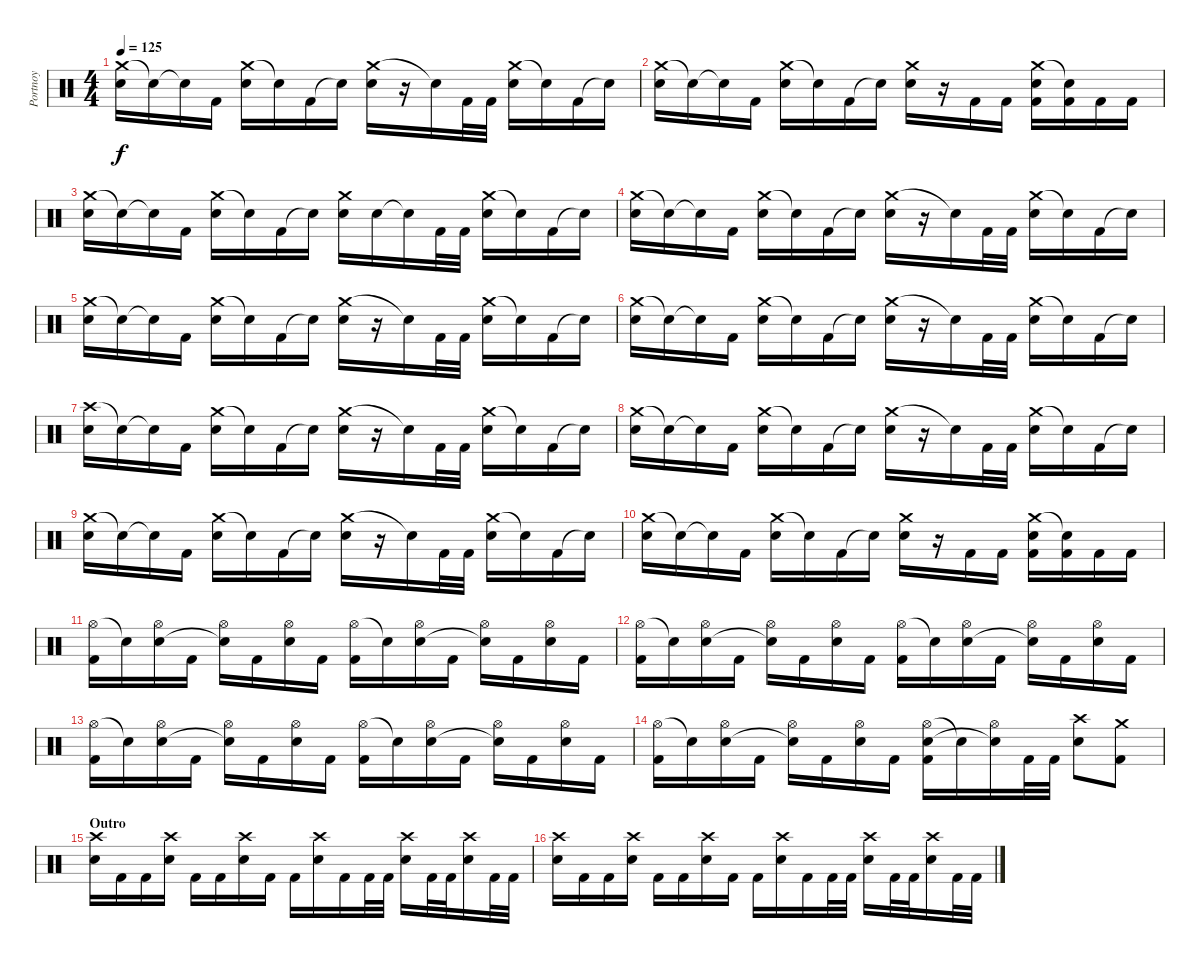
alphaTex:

\track ("Portnoy" "Portnoy") {instrument percussion}
\staff {score}
\articulation defaults
\ts (4 4)
\tempo 125
\clef neutral
\ks c
("Crash medium (hit)" "Snare (hit) 2").16{dy f} "Snare (hit)"{t}.16 "Snare (hit)"{t}.16 "Kick (hit) 2".16 ("Crash medium (hit)" "Snare (hit) 2").16 "Snare (hit)"{t}.16 "Kick (hit) 2".16 "Snare (hit)"{t}.16 ("Crash medium (hit)" "Snare (hit) 2").16 r.16 "Snare (hit)"{t}.16 "Kick (hit) 2".32 "Kick (hit) 2".32 ("Crash medium (hit)" "Snare (hit) 2").16 "Snare (hit)"{t}.16 "Kick (hit) 2".16 "Snare (hit)"{t}.16 |
("Crash medium (hit)" "Snare (hit) 2").16 "Snare (hit)"{t}.16 "Snare (hit)"{t}.16 "Kick (hit) 2".16 ("Crash medium (hit)" "Snare (hit) 2").16 "Snare (hit)"{t}.16 "Kick (hit) 2".16 "Snare (hit)"{t}.16 ("Crash medium (hit)" "Snare (hit) 2").16 r.16 "Kick (hit) 2".16 "Kick (hit) 2".16 ("Crash medium (hit)" "Snare (hit) 2" "Kick (hit) 2").16 ("Snare (hit)"{t} "Kick (hit) 2").16 "Kick (hit) 2".16 "Kick (hit) 2".16 |
("Crash medium (hit)" "Snare (hit) 2").16 "Snare (hit)"{t}.16 "Snare (hit)"{t}.16 "Kick (hit) 2".16 ("Crash medium (hit)" "Snare (hit) 2").16 "Snare (hit)"{t}.16 "Kick (hit) 2".16 "Snare (hit)"{t}.16 ("Crash medium (hit)" "Snare (hit) 2").16 "Snare (hit) 2".16 "Snare (hit)"{t}.16 "Kick (hit) 2".32 "Kick (hit) 2".32 ("Crash medium (hit)" "Snare (hit) 2").16 "Snare (hit)"{t}.16 "Kick (hit) 2".16 "Snare (hit)"{t}.16 |
("Crash medium (hit)" "Snare (hit) 2").16 "Snare (hit)"{t}.16 "Snare (hit)"{t}.16 "Kick (hit) 2".16 ("Crash medium (hit)" "Snare (hit) 2").16 "Snare (hit)"{t}.16 "Kick (hit) 2".16 "Snare (hit)"{t}.16 ("Crash medium (hit)" "Snare (hit) 2").16 r.16 "Snare (hit)"{t}.16 "Kick (hit) 2".32 "Kick (hit) 2".32 ("Crash medium (hit)" "Snare (hit) 2").16 "Snare (hit)"{t}.16 "Kick (hit) 2".16 "Snare (hit)"{t}.16 |
("Crash medium (hit)" "Snare (hit) 2").16 "Snare (hit)"{t}.16 "Snare (hit)"{t}.16 "Kick (hit) 2".16 ("Crash medium (hit)" "Snare (hit) 2").16 "Snare (hit)"{t}.16 "Kick (hit) 2".16 "Snare (hit)"{t}.16 ("Crash medium (hit)" "Snare (hit) 2").16 r.16 "Snare (hit)"{t}.16 "Kick (hit) 2".32 "Kick (hit) 2".32 ("Crash medium (hit)" "Snare (hit) 2").16 "Snare (hit)"{t}.16 "Kick (hit) 2".16 "Snare (hit)"{t}.16 |
("Crash medium (hit)" "Snare (hit) 2").16 "Snare (hit)"{t}.16 "Snare (hit)"{t}.16 "Kick (hit) 2".16 ("Crash medium (hit)" "Snare (hit) 2").16 "Snare (hit)"{t}.16 "Kick (hit) 2".16 "Snare (hit)"{t}.16 ("Crash medium (hit)" "Snare (hit) 2").16 r.16 "Snare (hit)"{t}.16 "Kick (hit) 2".32 "Kick (hit) 2".32 ("Crash medium (hit)" "Snare (hit) 2").16 "Snare (hit)"{t}.16 "Kick (hit) 2".16 "Snare (hit)"{t}.16 |
("Crash high (hit)" "Snare (hit) 2").16 "Snare (hit)"{t}.16 "Snare (hit)"{t}.16 "Kick (hit) 2".16 ("Crash medium (hit)" "Snare (hit) 2").16 "Snare (hit)"{t}.16 "Kick (hit) 2".16 "Snare (hit)"{t}.16 ("Crash medium (hit)" "Snare (hit) 2").16 r.16 "Snare (hit)"{t}.16 "Kick (hit) 2".32 "Kick (hit) 2".32 ("Crash medium (hit)" "Snare (hit) 2").16 "Snare (hit)"{t}.16 "Kick (hit) 2".16 "Snare (hit)"{t}.16 |
("Crash medium (hit)" "Snare (hit) 2").16 "Snare (hit)"{t}.16 "Snare (hit)"{t}.16 "Kick (hit) 2".16 ("Crash medium (hit)" "Snare (hit) 2").16 "Snare (hit)"{t}.16 "Kick (hit) 2".16 "Snare (hit)"{t}.16 ("Crash medium (hit)" "Snare (hit) 2").16 r.16 "Snare (hit)"{t}.16 "Kick (hit) 2".32 "Kick (hit) 2".32 ("Crash medium (hit)" "Snare (hit) 2").16 "Snare (hit)"{t}.16 "Kick (hit) 2".16 "Snare (hit)"{t}.16 |
("Crash medium (hit)" "Snare (hit) 2").16 "Snare (hit)"{t}.16 "Snare (hit)"{t}.16 "Kick (hit) 2".16 ("Crash medium (hit)" "Snare (hit) 2").16 "Snare (hit)"{t}.16 "Kick (hit) 2".16 "Snare (hit)"{t}.16 ("Crash medium (hit)" "Snare (hit) 2").16 r.16 "Snare (hit)"{t}.16 "Kick (hit) 2".32 "Kick (hit) 2".32 ("Crash medium (hit)" "Snare (hit) 2").16 "Snare (hit)"{t}.16 "Kick (hit) 2".16 "Snare (hit)"{t}.16 |
("Crash medium (hit)" "Snare (hit) 2").16 "Snare (hit)"{t}.16 "Snare (hit)"{t}.16 "Kick (hit) 2".16 ("Crash medium (hit)" "Snare (hit) 2").16 "Snare (hit)"{t}.16 "Kick (hit) 2".16 "Snare (hit)"{t}.16 ("Crash medium (hit)" "Snare (hit) 2").16 r.16 "Kick (hit) 2".16 "Kick (hit) 2".16 ("Crash medium (hit)" "Snare (hit) 2" "Kick (hit) 2").16 ("Snare (hit)"{t} "Kick (hit) 2").16 "Kick (hit) 2".16 "Kick (hit) 2".16 |
("Hi-Hat (open)" "Kick (hit) 2").16 "Snare (hit)"{t}.16 ("Hi-Hat (open)" "Snare (hit) 2").16 "Kick (hit) 2".16 ("Hi-Hat (open)" "Snare (hit)"{t}).16 "Kick (hit) 2".16 ("Hi-Hat (open)" "Snare (hit) 2").16 "Kick (hit) 2".16 ("Hi-Hat (open)" "Kick (hit) 2").16 "Snare (hit)"{t}.16 ("Hi-Hat (open)" "Snare (hit) 2").16 "Kick (hit) 2".16 ("Hi-Hat (open)" "Snare (hit)"{t}).16 "Kick (hit) 2".16 ("Hi-Hat (open)" "Snare (hit) 2").16 "Kick (hit) 2".16 |
("Hi-Hat (open)" "Kick (hit) 2").16 "Snare (hit)"{t}.16 ("Hi-Hat (open)" "Snare (hit) 2").16 "Kick (hit) 2".16 ("Hi-Hat (open)" "Snare (hit)"{t}).16 "Kick (hit) 2".16 ("Hi-Hat (open)" "Snare (hit) 2").16 "Kick (hit) 2".16 ("Hi-Hat (open)" "Kick (hit) 2").16 "Snare (hit)"{t}.16 ("Hi-Hat (open)" "Snare (hit) 2").16 "Kick (hit) 2".16 ("Hi-Hat (open)" "Snare (hit)"{t}).16 "Kick (hit) 2".16 ("Hi-Hat (open)" "Snare (hit) 2").16 "Kick (hit) 2".16 |
("Hi-Hat (open)" "Kick (hit) 2").16 "Snare (hit)"{t}.16 ("Hi-Hat (open)" "Snare (hit) 2").16 "Kick (hit) 2".16 ("Hi-Hat (open)" "Snare (hit)"{t}).16 "Kick (hit) 2".16 ("Hi-Hat (open)" "Snare (hit) 2").16 "Kick (hit) 2".16 ("Hi-Hat (open)" "Kick (hit) 2").16 "Snare (hit)"{t}.16 ("Hi-Hat (open)" "Snare (hit) 2").16 "Kick (hit) 2".16 ("Hi-Hat (open)" "Snare (hit)"{t}).16 "Kick (hit) 2".16 ("Hi-Hat (open)" "Snare (hit) 2").16 "Kick (hit) 2".16 |
("Hi-Hat (open)" "Kick (hit) 2").16 "Snare (hit)"{t}.16 ("Hi-Hat (open)" "Snare (hit) 2").16 "Kick (hit) 2".16 ("Hi-Hat (open)" "Snare (hit)"{t}).16 "Kick (hit) 2".16 ("Hi-Hat (open)" "Snare (hit) 2").16 "Kick (hit) 2".16 ("Hi-Hat (open)" "Snare (hit) 2" "Kick (hit) 2").16 "Snare (hit)"{t}.16 ("Hi-Hat (open)" "Snare (hit)"{t}).16 "Kick (hit) 2".32 "Kick (hit) 2".32 ("Crash high (hit)" "Snare (hit) 2").8 ("Crash medium (hit)" "Kick (hit) 2").8 |
\section ("" "Outro")
("Crash high (hit)" "Snare (hit) 2").16 "Kick (hit) 2".16 "Kick (hit) 2".16 ("Crash high (hit)" "Snare (hit) 2").16 "Kick (hit) 2".16 "Kick (hit) 2".16 ("Crash high (hit)" "Snare (hit) 2").16 "Kick (hit) 2".16 "Kick (hit) 2".16 ("Crash high (hit)" "Snare (hit) 2").16 "Kick (hit) 2".16 "Kick (hit) 2".32 "Kick (hit) 2".32 ("Crash high (hit)" "Snare (hit) 2").16 "Kick (hit) 2".32 "Kick (hit) 2".32 ("Crash high (hit)" "Snare (hit) 2").16 "Kick (hit) 2".32 "Kick (hit) 2".32 |
("Crash high (hit)" "Snare (hit) 2").16 "Kick (hit) 2".16 "Kick (hit) 2".16 ("Crash high (hit)" "Snare (hit) 2").16 "Kick (hit) 2".16 "Kick (hit) 2".16 ("Crash high (hit)" "Snare (hit) 2").16 "Kick (hit) 2".16 "Kick (hit) 2".16 ("Crash high (hit)" "Snare (hit) 2").16 "Kick (hit) 2".16 "Kick (hit) 2".32 "Kick (hit) 2".32 ("Crash high (hit)" "Snare (hit) 2").16 "Kick (hit) 2".32 "Kick (hit) 2".32 ("Crash high (hit)" "Snare (hit) 2").16 "Kick (hit) 2".32 "Kick (hit) 2".32
